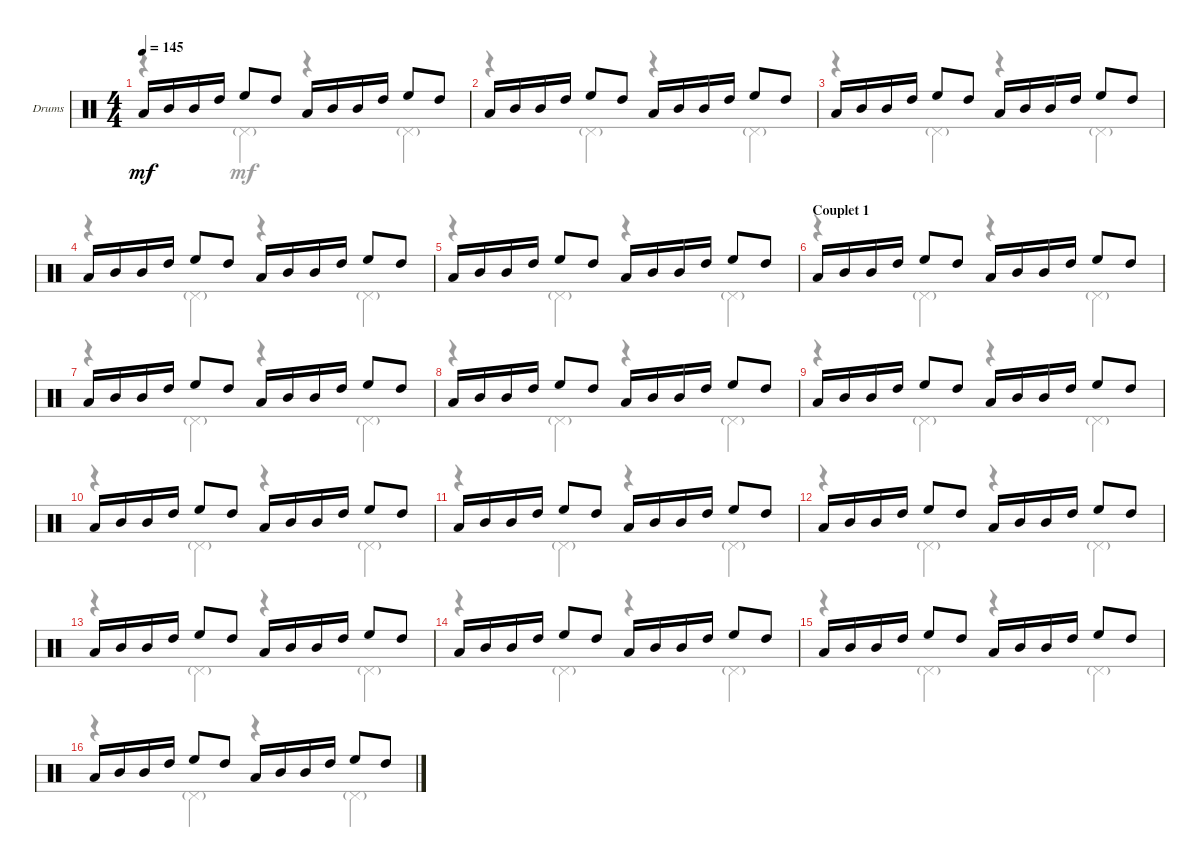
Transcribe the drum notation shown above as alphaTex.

\defaultSystemsLayout 4
\bracketExtendMode groupsimilarinstruments
\firstSystemTrackNameOrientation horizontal
\otherSystemsTrackNameOrientation horizontal
\track ("Drumkit" "Drums") {instrument percussion}
\staff {score}
\articulation defaults
\voice
\ts (4 4)
\tempo 145
\clef neutral
\ks c "Low Tom (hit)".16{dy mf} "Mid Tom (hit)".16 "Mid Tom (hit)".16 "High Tom (hit)".16 "High Floor Tom (hit)".8 "High Tom (hit)".8 "Low Tom (hit)".16 "Mid Tom (hit)".16 "Mid Tom (hit)".16 "High Tom (hit)".16 "High Floor Tom (hit)".8 "High Tom (hit)".8
|
"Low Tom (hit)".16 "Mid Tom (hit)".16 "Mid Tom (hit)".16 "High Tom (hit)".16 "High Floor Tom (hit)".8 "High Tom (hit)".8 "Low Tom (hit)".16 "Mid Tom (hit)".16 "Mid Tom (hit)".16 "High Tom (hit)".16 "High Floor Tom (hit)".8 "High Tom (hit)".8 |
"Low Tom (hit)".16 "Mid Tom (hit)".16 "Mid Tom (hit)".16 "High Tom (hit)".16 "High Floor Tom (hit)".8 "High Tom (hit)".8 "Low Tom (hit)".16 "Mid Tom (hit)".16 "Mid Tom (hit)".16 "High Tom (hit)".16 "High Floor Tom (hit)".8 "High Tom (hit)".8 |
"Low Tom (hit)".16 "Mid Tom (hit)".16 "Mid Tom (hit)".16 "High Tom (hit)".16 "High Floor Tom (hit)".8 "High Tom (hit)".8 "Low Tom (hit)".16 "Mid Tom (hit)".16 "Mid Tom (hit)".16 "High Tom (hit)".16 "High Floor Tom (hit)".8 "High Tom (hit)".8 |
"Low Tom (hit)".16 "Mid Tom (hit)".16 "Mid Tom (hit)".16 "High Tom (hit)".16 "High Floor Tom (hit)".8 "High Tom (hit)".8 "Low Tom (hit)".16 "Mid Tom (hit)".16 "Mid Tom (hit)".16 "High Tom (hit)".16 "High Floor Tom (hit)".8 "High Tom (hit)".8 |
\section ("" "Couplet 1")
"Low Tom (hit)".16 "Mid Tom (hit)".16 "Mid Tom (hit)".16 "High Tom (hit)".16 "High Floor Tom (hit)".8 "High Tom (hit)".8 "Low Tom (hit)".16 "Mid Tom (hit)".16 "Mid Tom (hit)".16 "High Tom (hit)".16 "High Floor Tom (hit)".8 "High Tom (hit)".8 |
"Low Tom (hit)".16 "Mid Tom (hit)".16 "Mid Tom (hit)".16 "High Tom (hit)".16 "High Floor Tom (hit)".8 "High Tom (hit)".8 "Low Tom (hit)".16 "Mid Tom (hit)".16 "Mid Tom (hit)".16 "High Tom (hit)".16 "High Floor Tom (hit)".8 "High Tom (hit)".8 |
"Low Tom (hit)".16 "Mid Tom (hit)".16 "Mid Tom (hit)".16 "High Tom (hit)".16 "High Floor Tom (hit)".8 "High Tom (hit)".8 "Low Tom (hit)".16 "Mid Tom (hit)".16 "Mid Tom (hit)".16 "High Tom (hit)".16 "High Floor Tom (hit)".8 "High Tom (hit)".8 |
"Low Tom (hit)".16 "Mid Tom (hit)".16 "Mid Tom (hit)".16 "High Tom (hit)".16 "High Floor Tom (hit)".8 "High Tom (hit)".8 "Low Tom (hit)".16 "Mid Tom (hit)".16 "Mid Tom (hit)".16 "High Tom (hit)".16 "High Floor Tom (hit)".8 "High Tom (hit)".8 |
"Low Tom (hit)".16 "Mid Tom (hit)".16 "Mid Tom (hit)".16 "High Tom (hit)".16 "High Floor Tom (hit)".8 "High Tom (hit)".8 "Low Tom (hit)".16 "Mid Tom (hit)".16 "Mid Tom (hit)".16 "High Tom (hit)".16 "High Floor Tom (hit)".8 "High Tom (hit)".8 |
"Low Tom (hit)".16 "Mid Tom (hit)".16 "Mid Tom (hit)".16 "High Tom (hit)".16 "High Floor Tom (hit)".8 "High Tom (hit)".8 "Low Tom (hit)".16 "Mid Tom (hit)".16 "Mid Tom (hit)".16 "High Tom (hit)".16 "High Floor Tom (hit)".8 "High Tom (hit)".8 |
"Low Tom (hit)".16 "Mid Tom (hit)".16 "Mid Tom (hit)".16 "High Tom (hit)".16 "High Floor Tom (hit)".8 "High Tom (hit)".8 "Low Tom (hit)".16 "Mid Tom (hit)".16 "Mid Tom (hit)".16 "High Tom (hit)".16 "High Floor Tom (hit)".8 "High Tom (hit)".8 |
"Low Tom (hit)".16 "Mid Tom (hit)".16 "Mid Tom (hit)".16 "High Tom (hit)".16 "High Floor Tom (hit)".8 "High Tom (hit)".8 "Low Tom (hit)".16 "Mid Tom (hit)".16 "Mid Tom (hit)".16 "High Tom (hit)".16 "High Floor Tom (hit)".8 "High Tom (hit)".8 |
"Low Tom (hit)".16 "Mid Tom (hit)".16 "Mid Tom (hit)".16 "High Tom (hit)".16 "High Floor Tom (hit)".8 "High Tom (hit)".8 "Low Tom (hit)".16 "Mid Tom (hit)".16 "Mid Tom (hit)".16 "High Tom (hit)".16 "High Floor Tom (hit)".8 "High Tom (hit)".8 |
"Low Tom (hit)".16 "Mid Tom (hit)".16 "Mid Tom (hit)".16 "High Tom (hit)".16 "High Floor Tom (hit)".8 "High Tom (hit)".8 "Low Tom (hit)".16 "Mid Tom (hit)".16 "Mid Tom (hit)".16 "High Tom (hit)".16 "High Floor Tom (hit)".8 "High Tom (hit)".8 |
"Low Tom (hit)".16 "Mid Tom (hit)".16 "Mid Tom (hit)".16 "High Tom (hit)".16 "High Floor Tom (hit)".8 "High Tom (hit)".8 "Low Tom (hit)".16 "Mid Tom (hit)".16 "Mid Tom (hit)".16 "High Tom (hit)".16 "High Floor Tom (hit)".8 "High Tom (hit)".8
\voice
\clef neutral
\ottava regular
\simile none
\ks c
r.4{dy mf} "Pedal Hi-Hat (hit)"{g}.4 r.4 "Pedal Hi-Hat (hit)"{g}.4 |
r.4 "Pedal Hi-Hat (hit)"{g}.4 r.4 "Pedal Hi-Hat (hit)"{g}.4 |
r.4 "Pedal Hi-Hat (hit)"{g}.4 r.4 "Pedal Hi-Hat (hit)"{g}.4 |
r.4 "Pedal Hi-Hat (hit)"{g}.4 r.4 "Pedal Hi-Hat (hit)"{g}.4 |
r.4 "Pedal Hi-Hat (hit)"{g}.4 r.4 "Pedal Hi-Hat (hit)"{g}.4 |
r.4 "Pedal Hi-Hat (hit)"{g}.4 r.4 "Pedal Hi-Hat (hit)"{g}.4 |
r.4 "Pedal Hi-Hat (hit)"{g}.4 r.4 "Pedal Hi-Hat (hit)"{g}.4 |
r.4 "Pedal Hi-Hat (hit)"{g}.4 r.4 "Pedal Hi-Hat (hit)"{g}.4 |
r.4 "Pedal Hi-Hat (hit)"{g}.4 r.4 "Pedal Hi-Hat (hit)"{g}.4 |
r.4 "Pedal Hi-Hat (hit)"{g}.4 r.4 "Pedal Hi-Hat (hit)"{g}.4 |
r.4 "Pedal Hi-Hat (hit)"{g}.4 r.4 "Pedal Hi-Hat (hit)"{g}.4 |
r.4 "Pedal Hi-Hat (hit)"{g}.4 r.4 "Pedal Hi-Hat (hit)"{g}.4 |
r.4 "Pedal Hi-Hat (hit)"{g}.4 r.4 "Pedal Hi-Hat (hit)"{g}.4 |
r.4 "Pedal Hi-Hat (hit)"{g}.4 r.4 "Pedal Hi-Hat (hit)"{g}.4 |
r.4 "Pedal Hi-Hat (hit)"{g}.4 r.4 "Pedal Hi-Hat (hit)"{g}.4 |
r.4 "Pedal Hi-Hat (hit)"{g}.4 r.4 "Pedal Hi-Hat (hit)"{g}.4
